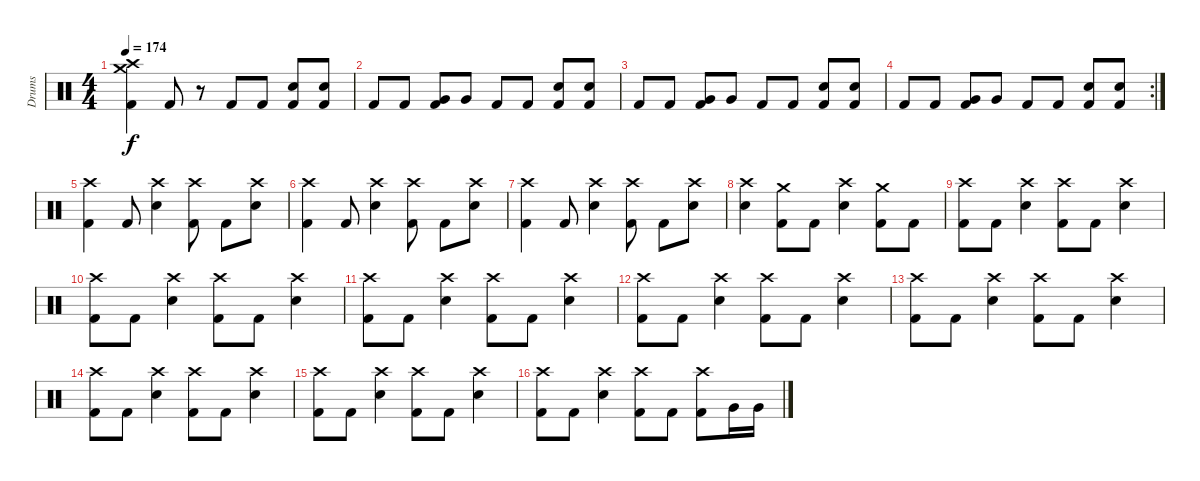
\track ("Drums" "Drums") {instrument percussion}
\staff {score}
\articulation defaults
\ts (4 4)
\tempo 174
\clef neutral
\ks c
("Crash high (hit)" "Crash medium (hit)" "Kick (hit) 2").4{dy f} "Kick (hit) 2".8 r.8 "Kick (hit) 2".8 "Kick (hit) 2".8 ("Snare (hit) 2" "Kick (hit) 2").8 ("Snare (hit) 2" "Kick (hit) 2").8 |
"Kick (hit) 2".8 "Kick (hit) 2".8 ("Very Low Tom (hit)" "Kick (hit) 2").8 "Very Low Tom (hit)".8 "Kick (hit) 2".8 "Kick (hit) 2".8 ("Snare (hit) 2" "Kick (hit) 2").8 ("Snare (hit) 2" "Kick (hit) 2").8 |
"Kick (hit) 2".8 "Kick (hit) 2".8 ("Very Low Tom (hit)" "Kick (hit) 2").8 "Very Low Tom (hit)".8 "Kick (hit) 2".8 "Kick (hit) 2".8 ("Snare (hit) 2" "Kick (hit) 2").8 ("Snare (hit) 2" "Kick (hit) 2").8 |
\rc 2 "Kick (hit) 2".8 "Kick (hit) 2".8
("Very Low Tom (hit)" "Kick (hit) 2").8 "Very Low Tom (hit)".8 "Kick (hit) 2".8 "Kick (hit) 2".8 ("Snare (hit) 2" "Kick (hit) 2").8 ("Snare (hit) 2" "Kick (hit) 2").8 |
("Crash high (hit)" "Kick (hit) 2").4 "Kick (hit) 2".8 ("Crash high (hit)" "Snare (hit) 2").4 ("Crash high (hit)" "Kick (hit) 2").8 "Kick (hit) 2".8 ("Crash high (hit)" "Snare (hit) 2").8 |
("Crash high (hit)" "Kick (hit) 2").4 "Kick (hit) 2".8 ("Crash high (hit)" "Snare (hit) 2").4 ("Crash high (hit)" "Kick (hit) 2").8 "Kick (hit) 2".8 ("Crash high (hit)" "Snare (hit) 2").8 |
("Crash high (hit)" "Kick (hit) 2").4 "Kick (hit) 2".8 ("Crash high (hit)" "Snare (hit) 2").4 ("Crash high (hit)" "Kick (hit) 2").8 "Kick (hit) 2".8 ("Crash high (hit)" "Snare (hit) 2").8 |
("Crash high (hit)" "Snare (hit) 2").4 ("Crash medium (hit)" "Kick (hit) 2").8 "Kick (hit) 2".8 ("Crash high (hit)" "Snare (hit) 2").4 ("Crash medium (hit)" "Kick (hit) 2").8 "Kick (hit) 2".8 |
("Crash high (hit)" "Kick (hit) 2").8 "Kick (hit) 2".8 ("Crash high (hit)" "Snare (hit) 2").4 ("Crash high (hit)" "Kick (hit) 2").8 "Kick (hit) 2".8 ("Crash high (hit)" "Snare (hit) 2").4 |
("Crash high (hit)" "Kick (hit) 2").8 "Kick (hit) 2".8 ("Crash high (hit)" "Snare (hit) 2").4 ("Crash high (hit)" "Kick (hit) 2").8 "Kick (hit) 2".8 ("Crash high (hit)" "Snare (hit) 2").4 |
("Crash high (hit)" "Kick (hit) 2").8 "Kick (hit) 2".8 ("Crash high (hit)" "Snare (hit) 2").4 ("Crash high (hit)" "Kick (hit) 2").8 "Kick (hit) 2".8 ("Crash high (hit)" "Snare (hit) 2").4 |
("Crash high (hit)" "Kick (hit) 2").8 "Kick (hit) 2".8 ("Crash high (hit)" "Snare (hit) 2").4 ("Crash high (hit)" "Kick (hit) 2").8 "Kick (hit) 2".8 ("Crash high (hit)" "Snare (hit) 2").4 |
("Crash high (hit)" "Kick (hit) 2").8 "Kick (hit) 2".8 ("Crash high (hit)" "Snare (hit) 2").4 ("Crash high (hit)" "Kick (hit) 2").8 "Kick (hit) 2".8 ("Crash high (hit)" "Snare (hit) 2").4 |
("Crash high (hit)" "Kick (hit) 2").8 "Kick (hit) 2".8 ("Crash high (hit)" "Snare (hit) 2").4 ("Crash high (hit)" "Kick (hit) 2").8 "Kick (hit) 2".8 ("Crash high (hit)" "Snare (hit) 2").4 |
("Crash high (hit)" "Kick (hit) 2").8 "Kick (hit) 2".8 ("Crash high (hit)" "Snare (hit) 2").4 ("Crash high (hit)" "Kick (hit) 2").8 "Kick (hit) 2".8 ("Crash high (hit)" "Snare (hit) 2").4 |
("Crash high (hit)" "Kick (hit) 2").8 "Kick (hit) 2".8 ("Crash high (hit)" "Snare (hit) 2").4 ("Crash high (hit)" "Kick (hit) 2").8 "Kick (hit) 2".8 ("Crash high (hit)" "Kick (hit) 2").8 "Very Low Tom (hit)".16 "Very Low Tom (hit)".16
